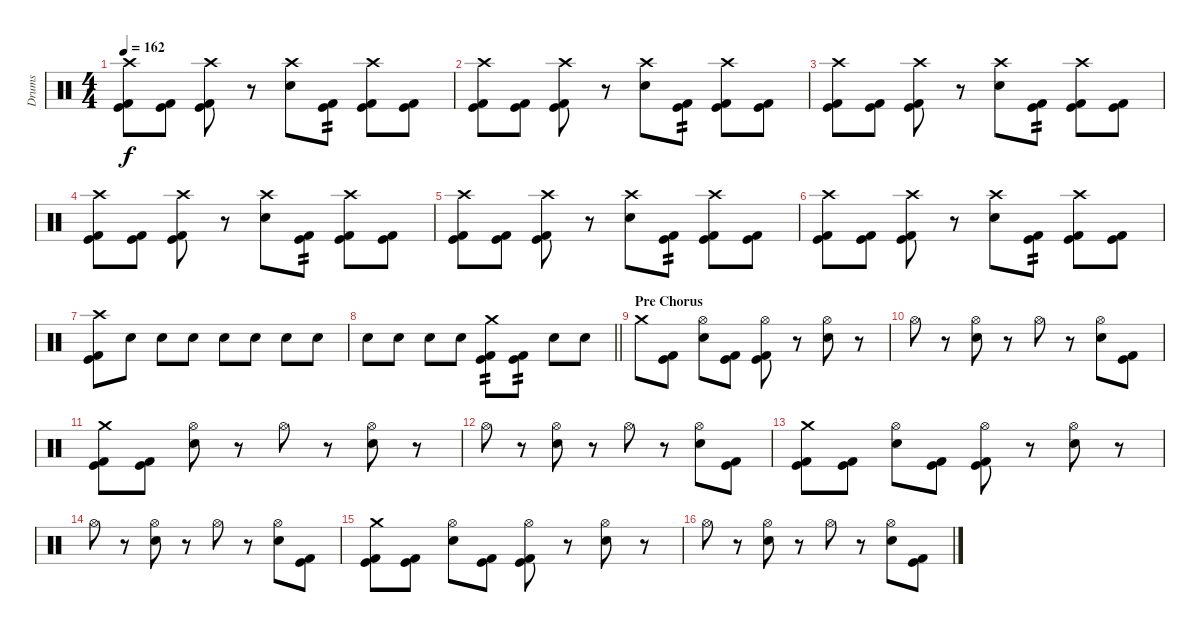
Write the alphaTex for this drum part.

\track ("Drums" "Drums") {instrument percussion}
\staff {score}
\articulation defaults
\ts (4 4)
\tempo 162
\clef neutral
\ks c
("Kick (hit)" "Kick (hit) 2" "Crash high (hit)").8{dy f} ("Kick (hit)" "Kick (hit) 2").8 ("Kick (hit)" "Kick (hit) 2" "Crash high (hit)").8 r.8 ("Snare (hit) 2" "Crash high (hit)").8 ("Kick (hit)" "Kick (hit) 2").8{tp 2} ("Kick (hit)" "Kick (hit) 2" "Crash high (hit)").8 ("Kick (hit)" "Kick (hit) 2").8 |
("Kick (hit)" "Kick (hit) 2" "Crash high (hit)").8 ("Kick (hit)" "Kick (hit) 2").8 ("Kick (hit)" "Kick (hit) 2" "Crash high (hit)").8 r.8 ("Snare (hit) 2" "Crash high (hit)").8 ("Kick (hit)" "Kick (hit) 2").8{tp 2} ("Kick (hit)" "Kick (hit) 2" "Crash high (hit)").8 ("Kick (hit)" "Kick (hit) 2").8 |
("Kick (hit)" "Kick (hit) 2" "Crash high (hit)").8 ("Kick (hit)" "Kick (hit) 2").8 ("Kick (hit)" "Kick (hit) 2" "Crash high (hit)").8 r.8 ("Snare (hit) 2" "Crash high (hit)").8 ("Kick (hit)" "Kick (hit) 2").8{tp 2} ("Kick (hit)" "Kick (hit) 2" "Crash high (hit)").8 ("Kick (hit)" "Kick (hit) 2").8 |
("Kick (hit)" "Kick (hit) 2" "Crash high (hit)").8 ("Kick (hit)" "Kick (hit) 2").8 ("Kick (hit)" "Kick (hit) 2" "Crash high (hit)").8 r.8 ("Snare (hit) 2" "Crash high (hit)").8 ("Kick (hit)" "Kick (hit) 2").8{tp 2} ("Kick (hit)" "Kick (hit) 2" "Crash high (hit)").8 ("Kick (hit)" "Kick (hit) 2").8 |
("Kick (hit)" "Kick (hit) 2" "Crash high (hit)").8 ("Kick (hit)" "Kick (hit) 2").8 ("Kick (hit)" "Kick (hit) 2" "Crash high (hit)").8 r.8 ("Snare (hit) 2" "Crash high (hit)").8 ("Kick (hit)" "Kick (hit) 2").8{tp 2} ("Kick (hit)" "Kick (hit) 2" "Crash high (hit)").8 ("Kick (hit)" "Kick (hit) 2").8 |
("Kick (hit)" "Kick (hit) 2" "Crash high (hit)").8 ("Kick (hit)" "Kick (hit) 2").8 ("Kick (hit)" "Kick (hit) 2" "Crash high (hit)").8 r.8 ("Snare (hit) 2" "Crash high (hit)").8 ("Kick (hit)" "Kick (hit) 2").8{tp 2} ("Kick (hit)" "Kick (hit) 2" "Crash high (hit)").8 ("Kick (hit)" "Kick (hit) 2").8 |
("Kick (hit)" "Kick (hit) 2" "Crash high (hit)").8 "Snare (hit) 2".8 "Snare (hit) 2".8 "Snare (hit) 2".8 "Snare (hit) 2".8 "Snare (hit) 2".8 "Snare (hit) 2".8 "Snare (hit) 2".8 |
\barLineRight lightlight "Snare (hit) 2".8 "Snare (hit) 2".8 "Snare (hit) 2".8 "Snare (hit) 2".8
("Kick (hit)" "Kick (hit) 2" "Crash medium (hit)").8{tp 2} ("Kick (hit)" "Kick (hit) 2").8{tp 2} "Snare (hit) 2".8 "Snare (hit) 2".8 |
\section ("" "Pre Chorus")
"Crash medium (hit)".8 ("Kick (hit)" "Kick (hit) 2").8 ("Snare (hit) 2" "Hi-Hat (open)").8 ("Kick (hit)" "Kick (hit) 2").8 ("Kick (hit)" "Kick (hit) 2" "Hi-Hat (open)").8 r.8 ("Snare (hit) 2" "Hi-Hat (open)").8 r.8 |
"Hi-Hat (open)".8 r.8 ("Snare (hit) 2" "Hi-Hat (open)").8 r.8 "Hi-Hat (open)".8 r.8 ("Snare (hit) 2" "Hi-Hat (open)").8 ("Kick (hit)" "Kick (hit) 2").8 |
("Kick (hit)" "Kick (hit) 2" "Crash medium (hit)").8 ("Kick (hit)" "Kick (hit) 2").8 ("Snare (hit) 2" "Hi-Hat (open)").8 r.8 "Hi-Hat (open)".8 r.8 ("Snare (hit) 2" "Hi-Hat (open)").8 r.8 |
"Hi-Hat (open)".8 r.8 ("Snare (hit) 2" "Hi-Hat (open)").8 r.8 "Hi-Hat (open)".8 r.8 ("Snare (hit) 2" "Hi-Hat (open)").8 ("Kick (hit)" "Kick (hit) 2").8 |
("Kick (hit)" "Kick (hit) 2" "Crash medium (hit)").8 ("Kick (hit)" "Kick (hit) 2").8 ("Snare (hit) 2" "Hi-Hat (open)").8 ("Kick (hit)" "Kick (hit) 2").8 ("Kick (hit)" "Kick (hit) 2" "Hi-Hat (open)").8 r.8 ("Snare (hit) 2" "Hi-Hat (open)").8 r.8 |
"Hi-Hat (open)".8 r.8 ("Snare (hit) 2" "Hi-Hat (open)").8 r.8 "Hi-Hat (open)".8 r.8 ("Snare (hit) 2" "Hi-Hat (open)").8 ("Kick (hit)" "Kick (hit) 2").8 |
("Kick (hit)" "Kick (hit) 2" "Crash medium (hit)").8 ("Kick (hit)" "Kick (hit) 2").8 ("Snare (hit) 2" "Hi-Hat (open)").8 ("Kick (hit)" "Kick (hit) 2").8 ("Kick (hit)" "Kick (hit) 2" "Hi-Hat (open)").8 r.8 ("Snare (hit) 2" "Hi-Hat (open)").8 r.8 |
"Hi-Hat (open)".8 r.8 ("Snare (hit) 2" "Hi-Hat (open)").8 r.8 "Hi-Hat (open)".8 r.8 ("Snare (hit) 2" "Hi-Hat (open)").8 ("Kick (hit)" "Kick (hit) 2").8
